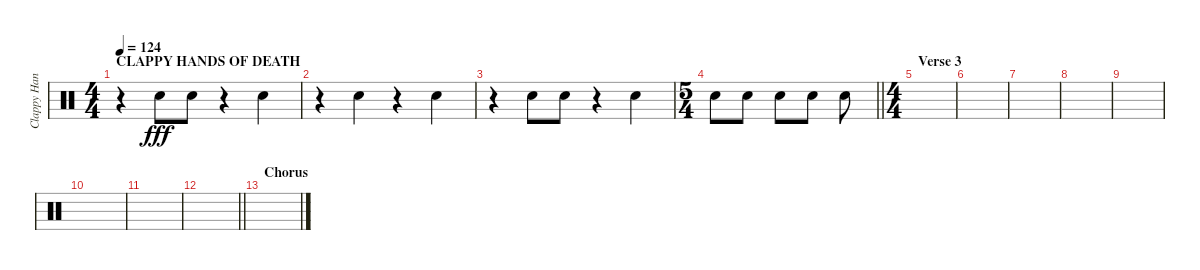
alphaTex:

\track ("Clappy Hands of Death" "Clappy Han") {instrument percussion}
\staff {score}
\articulation defaults
\ts (4 4)
\section ("" "CLAPPY HANDS OF DEATH")
\tempo 124
\clef neutral
\ks c
r.4{dy fff} "Hand Clap (hit)".8 "Hand Clap (hit)".8 r.4 "Hand Clap (hit)".4 |
r.4 "Hand Clap (hit)".4 r.4 "Hand Clap (hit)".4 |
r.4 "Hand Clap (hit)".8 "Hand Clap (hit)".8 r.4 "Hand Clap (hit)".4 |
\ts (5 4)
\barLineRight lightlight "Hand Clap (hit)".8 "Hand Clap (hit)".8 "Hand Clap (hit)".8 "Hand Clap (hit)".8 "Hand Clap (hit)".8
|
\ts (4 4)
\section ("" "Verse 3")
|
|
|
|
|
|
|
\barLineRight lightlight
|
\section ("" "Chorus")
